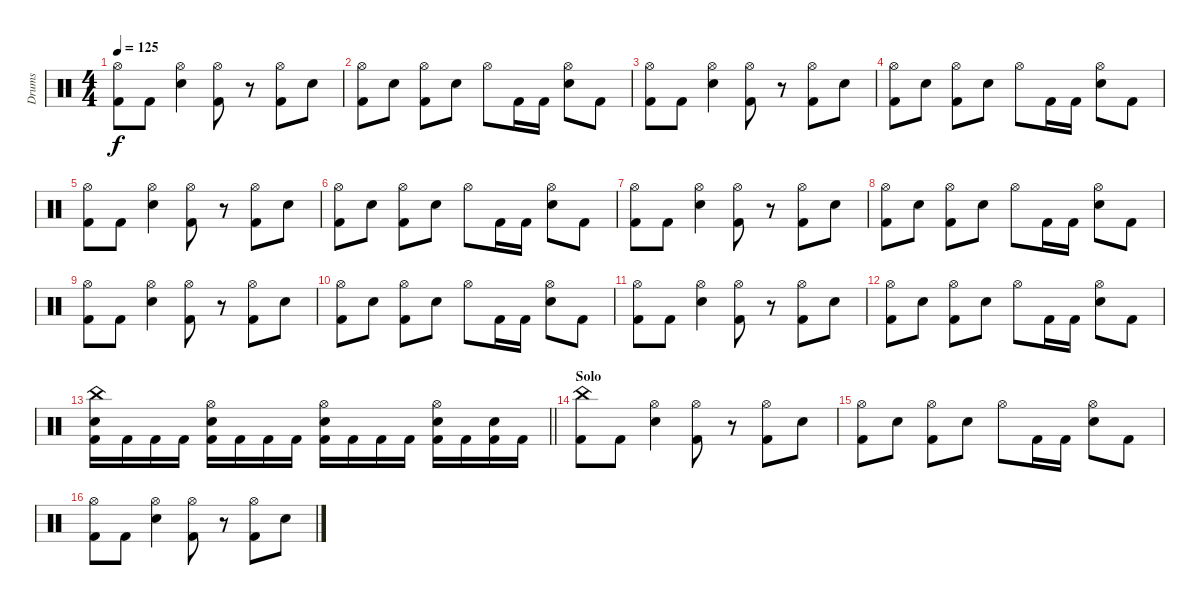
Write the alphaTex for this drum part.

\track ("Drums" "Drums") {instrument percussion}
\staff {score}
\articulation defaults
\ts (4 4)
\tempo 125
\clef neutral
\ks c
("Hi-Hat (open)" "Kick (hit) 2").8{dy f} "Kick (hit) 2".8 ("Hi-Hat (open)" "Electric Snare (hit)").4 ("Hi-Hat (open)" "Kick (hit) 2").8 r.8 ("Hi-Hat (open)" "Kick (hit) 2").8 "Electric Snare (hit)".8 |
("Hi-Hat (open)" "Kick (hit) 2").8 "Electric Snare (hit)".8 ("Hi-Hat (open)" "Kick (hit) 2").8 "Electric Snare (hit)".8 "Hi-Hat (open)".8 "Kick (hit) 2".16 "Kick (hit) 2".16 ("Hi-Hat (open)" "Electric Snare (hit)").8 "Kick (hit) 2".8 |
("Hi-Hat (open)" "Kick (hit) 2").8 "Kick (hit) 2".8 ("Hi-Hat (open)" "Electric Snare (hit)").4 ("Hi-Hat (open)" "Kick (hit) 2").8 r.8 ("Hi-Hat (open)" "Kick (hit) 2").8 "Electric Snare (hit)".8 |
("Hi-Hat (open)" "Kick (hit) 2").8 "Electric Snare (hit)".8 ("Hi-Hat (open)" "Kick (hit) 2").8 "Electric Snare (hit)".8 "Hi-Hat (open)".8 "Kick (hit) 2".16 "Kick (hit) 2".16 ("Hi-Hat (open)" "Electric Snare (hit)").8 "Kick (hit) 2".8 |
("Hi-Hat (open)" "Kick (hit) 2").8 "Kick (hit) 2".8 ("Hi-Hat (open)" "Electric Snare (hit)").4 ("Hi-Hat (open)" "Kick (hit) 2").8 r.8 ("Hi-Hat (open)" "Kick (hit) 2").8 "Electric Snare (hit)".8 |
("Hi-Hat (open)" "Kick (hit) 2").8 "Electric Snare (hit)".8 ("Hi-Hat (open)" "Kick (hit) 2").8 "Electric Snare (hit)".8 "Hi-Hat (open)".8 "Kick (hit) 2".16 "Kick (hit) 2".16 ("Hi-Hat (open)" "Electric Snare (hit)").8 "Kick (hit) 2".8 |
("Hi-Hat (open)" "Kick (hit) 2").8 "Kick (hit) 2".8 ("Hi-Hat (open)" "Electric Snare (hit)").4 ("Hi-Hat (open)" "Kick (hit) 2").8 r.8 ("Hi-Hat (open)" "Kick (hit) 2").8 "Electric Snare (hit)".8 |
("Hi-Hat (open)" "Kick (hit) 2").8 "Electric Snare (hit)".8 ("Hi-Hat (open)" "Kick (hit) 2").8 "Electric Snare (hit)".8 "Hi-Hat (open)".8 "Kick (hit) 2".16 "Kick (hit) 2".16 ("Hi-Hat (open)" "Electric Snare (hit)").8 "Kick (hit) 2".8 |
("Hi-Hat (open)" "Kick (hit) 2").8 "Kick (hit) 2".8 ("Hi-Hat (open)" "Electric Snare (hit)").4 ("Hi-Hat (open)" "Kick (hit) 2").8 r.8 ("Hi-Hat (open)" "Kick (hit) 2").8 "Electric Snare (hit)".8 |
("Hi-Hat (open)" "Kick (hit) 2").8 "Electric Snare (hit)".8 ("Hi-Hat (open)" "Kick (hit) 2").8 "Electric Snare (hit)".8 "Hi-Hat (open)".8 "Kick (hit) 2".16 "Kick (hit) 2".16 ("Hi-Hat (open)" "Electric Snare (hit)").8 "Kick (hit) 2".8 |
("Hi-Hat (open)" "Kick (hit) 2").8 "Kick (hit) 2".8 ("Hi-Hat (open)" "Electric Snare (hit)").4 ("Hi-Hat (open)" "Kick (hit) 2").8 r.8 ("Hi-Hat (open)" "Kick (hit) 2").8 "Electric Snare (hit)".8 |
("Hi-Hat (open)" "Kick (hit) 2").8 "Electric Snare (hit)".8 ("Hi-Hat (open)" "Kick (hit) 2").8 "Electric Snare (hit)".8 "Hi-Hat (open)".8 "Kick (hit) 2".16 "Kick (hit) 2".16 ("Hi-Hat (open)" "Electric Snare (hit)").8 "Kick (hit) 2".8 |
\barLineRight lightlight
("China (hit)" "Kick (hit) 2" "Electric Snare (hit)").16 "Kick (hit) 2".16 "Kick (hit) 2".16 "Kick (hit) 2".16 ("Hi-Hat (open)" "Kick (hit) 2" "Electric Snare (hit)").16 "Kick (hit) 2".16 "Kick (hit) 2".16 "Kick (hit) 2".16 ("Hi-Hat (open)" "Kick (hit) 2" "Electric Snare (hit)").16 "Kick (hit) 2".16 "Kick (hit) 2".16 "Kick (hit) 2".16 ("Hi-Hat (open)" "Kick (hit) 2" "Electric Snare (hit)").16 "Kick (hit) 2".16 ("Kick (hit) 2" "Electric Snare (hit)").16 "Kick (hit) 2".16 |
\section ("" "Solo")
("China (hit)" "Kick (hit) 2").8 "Kick (hit) 2".8 ("Hi-Hat (open)" "Electric Snare (hit)").4 ("Hi-Hat (open)" "Kick (hit) 2").8 r.8 ("Hi-Hat (open)" "Kick (hit) 2").8 "Electric Snare (hit)".8 |
("Hi-Hat (open)" "Kick (hit) 2").8 "Electric Snare (hit)".8 ("Hi-Hat (open)" "Kick (hit) 2").8 "Electric Snare (hit)".8 "Hi-Hat (open)".8 "Kick (hit) 2".16 "Kick (hit) 2".16 ("Hi-Hat (open)" "Electric Snare (hit)").8 "Kick (hit) 2".8 |
("Hi-Hat (open)" "Kick (hit) 2").8 "Kick (hit) 2".8 ("Hi-Hat (open)" "Electric Snare (hit)").4 ("Hi-Hat (open)" "Kick (hit) 2").8 r.8 ("Hi-Hat (open)" "Kick (hit) 2").8 "Electric Snare (hit)".8
